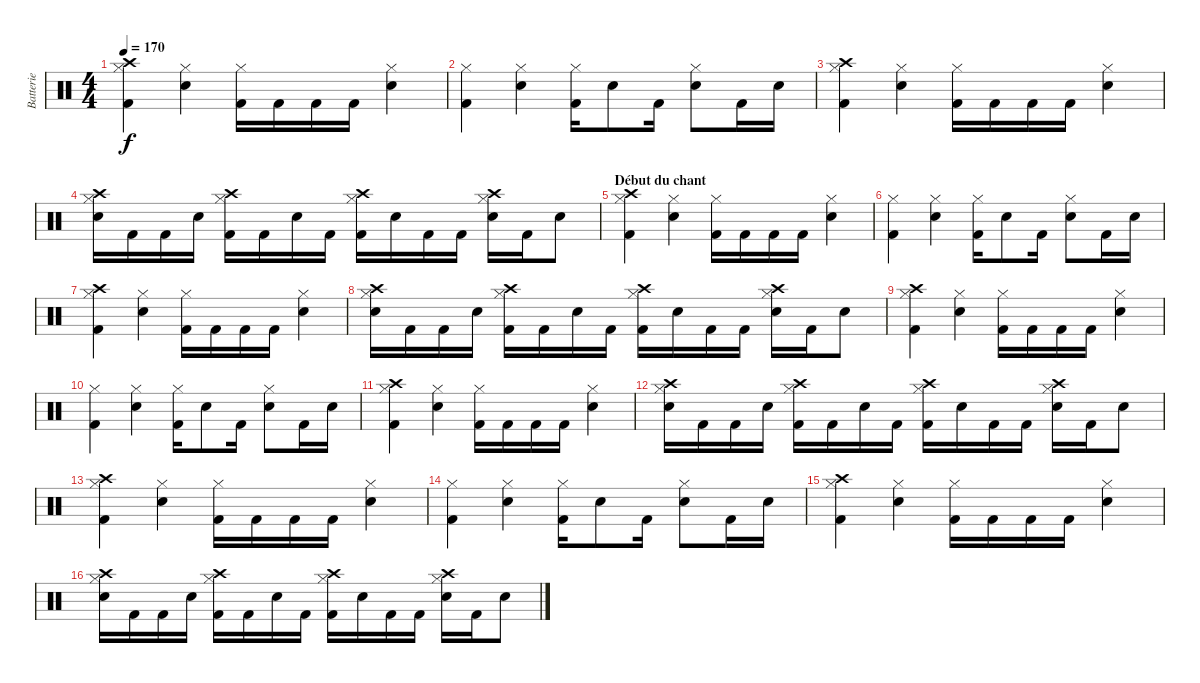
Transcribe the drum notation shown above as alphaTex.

\track ("Batterie" "Batterie") {instrument percussion}
\staff {score}
\articulation defaults
\ts (4 4)
\tempo 170
\clef neutral
\ks c
("Crash high (hit)" "Hi-Hat (closed)" "Kick (hit) 2").4{dy f} ("Hi-Hat (closed)" "Snare (hit) 2").4 ("Hi-Hat (closed)" "Kick (hit) 2").16 "Kick (hit) 2".16 "Kick (hit) 2".16 "Kick (hit) 2".16 ("Hi-Hat (closed)" "Snare (hit) 2").4 |
("Hi-Hat (closed)" "Kick (hit) 2").4 ("Hi-Hat (closed)" "Snare (hit) 2").4 ("Hi-Hat (closed)" "Kick (hit) 2").16 "Snare (hit) 2".8 "Kick (hit) 2".16 ("Hi-Hat (closed)" "Snare (hit) 2").8 "Kick (hit) 2".16 "Snare (hit) 2".16 |
("Crash high (hit)" "Hi-Hat (closed)" "Kick (hit) 2").4 ("Hi-Hat (closed)" "Snare (hit) 2").4 ("Hi-Hat (closed)" "Kick (hit) 2").16 "Kick (hit) 2".16 "Kick (hit) 2".16 "Kick (hit) 2".16 ("Hi-Hat (closed)" "Snare (hit) 2").4 |
("Crash high (hit)" "Hi-Hat (closed)" "Snare (hit) 2").16 "Kick (hit) 2".16 "Kick (hit) 2".16 "Snare (hit) 2".16 ("Crash high (hit)" "Hi-Hat (closed)" "Kick (hit) 2").16 "Kick (hit) 2".16 "Snare (hit) 2".16 "Kick (hit) 2".16 ("Crash high (hit)" "Hi-Hat (closed)" "Kick (hit) 2").16 "Snare (hit) 2".16 "Kick (hit) 2".16 "Kick (hit) 2".16 ("Crash high (hit)" "Hi-Hat (closed)" "Snare (hit) 2").16 "Kick (hit) 2".16 "Snare (hit) 2".8 |
\section ("" "Début du chant")
("Crash high (hit)" "Hi-Hat (closed)" "Kick (hit) 2").4 ("Hi-Hat (closed)" "Snare (hit) 2").4 ("Hi-Hat (closed)" "Kick (hit) 2").16 "Kick (hit) 2".16 "Kick (hit) 2".16 "Kick (hit) 2".16 ("Hi-Hat (closed)" "Snare (hit) 2").4 |
("Hi-Hat (closed)" "Kick (hit) 2").4 ("Hi-Hat (closed)" "Snare (hit) 2").4 ("Hi-Hat (closed)" "Kick (hit) 2").16 "Snare (hit) 2".8 "Kick (hit) 2".16 ("Hi-Hat (closed)" "Snare (hit) 2").8 "Kick (hit) 2".16 "Snare (hit) 2".16 |
("Crash high (hit)" "Hi-Hat (closed)" "Kick (hit) 2").4 ("Hi-Hat (closed)" "Snare (hit) 2").4 ("Hi-Hat (closed)" "Kick (hit) 2").16 "Kick (hit) 2".16 "Kick (hit) 2".16 "Kick (hit) 2".16 ("Hi-Hat (closed)" "Snare (hit) 2").4 |
("Crash high (hit)" "Hi-Hat (closed)" "Snare (hit) 2").16 "Kick (hit) 2".16 "Kick (hit) 2".16 "Snare (hit) 2".16 ("Crash high (hit)" "Hi-Hat (closed)" "Kick (hit) 2").16 "Kick (hit) 2".16 "Snare (hit) 2".16 "Kick (hit) 2".16 ("Crash high (hit)" "Hi-Hat (closed)" "Kick (hit) 2").16 "Snare (hit) 2".16 "Kick (hit) 2".16 "Kick (hit) 2".16 ("Crash high (hit)" "Hi-Hat (closed)" "Snare (hit) 2").16 "Kick (hit) 2".16 "Snare (hit) 2".8 |
("Crash high (hit)" "Hi-Hat (closed)" "Kick (hit) 2").4 ("Hi-Hat (closed)" "Snare (hit) 2").4 ("Hi-Hat (closed)" "Kick (hit) 2").16 "Kick (hit) 2".16 "Kick (hit) 2".16 "Kick (hit) 2".16 ("Hi-Hat (closed)" "Snare (hit) 2").4 |
("Hi-Hat (closed)" "Kick (hit) 2").4 ("Hi-Hat (closed)" "Snare (hit) 2").4 ("Hi-Hat (closed)" "Kick (hit) 2").16 "Snare (hit) 2".8 "Kick (hit) 2".16 ("Hi-Hat (closed)" "Snare (hit) 2").8 "Kick (hit) 2".16 "Snare (hit) 2".16 |
("Crash high (hit)" "Hi-Hat (closed)" "Kick (hit) 2").4 ("Hi-Hat (closed)" "Snare (hit) 2").4 ("Hi-Hat (closed)" "Kick (hit) 2").16 "Kick (hit) 2".16 "Kick (hit) 2".16 "Kick (hit) 2".16 ("Hi-Hat (closed)" "Snare (hit) 2").4 |
("Crash high (hit)" "Hi-Hat (closed)" "Snare (hit) 2").16 "Kick (hit) 2".16 "Kick (hit) 2".16 "Snare (hit) 2".16 ("Crash high (hit)" "Hi-Hat (closed)" "Kick (hit) 2").16 "Kick (hit) 2".16 "Snare (hit) 2".16 "Kick (hit) 2".16 ("Crash high (hit)" "Hi-Hat (closed)" "Kick (hit) 2").16 "Snare (hit) 2".16 "Kick (hit) 2".16 "Kick (hit) 2".16 ("Crash high (hit)" "Hi-Hat (closed)" "Snare (hit) 2").16 "Kick (hit) 2".16 "Snare (hit) 2".8 |
("Crash high (hit)" "Hi-Hat (closed)" "Kick (hit) 2").4 ("Hi-Hat (closed)" "Snare (hit) 2").4 ("Hi-Hat (closed)" "Kick (hit) 2").16 "Kick (hit) 2".16 "Kick (hit) 2".16 "Kick (hit) 2".16 ("Hi-Hat (closed)" "Snare (hit) 2").4 |
("Hi-Hat (closed)" "Kick (hit) 2").4 ("Hi-Hat (closed)" "Snare (hit) 2").4 ("Hi-Hat (closed)" "Kick (hit) 2").16 "Snare (hit) 2".8 "Kick (hit) 2".16 ("Hi-Hat (closed)" "Snare (hit) 2").8 "Kick (hit) 2".16 "Snare (hit) 2".16 |
("Crash high (hit)" "Hi-Hat (closed)" "Kick (hit) 2").4 ("Hi-Hat (closed)" "Snare (hit) 2").4 ("Hi-Hat (closed)" "Kick (hit) 2").16 "Kick (hit) 2".16 "Kick (hit) 2".16 "Kick (hit) 2".16 ("Hi-Hat (closed)" "Snare (hit) 2").4 |
("Crash high (hit)" "Hi-Hat (closed)" "Snare (hit) 2").16 "Kick (hit) 2".16 "Kick (hit) 2".16 "Snare (hit) 2".16 ("Crash high (hit)" "Hi-Hat (closed)" "Kick (hit) 2").16 "Kick (hit) 2".16 "Snare (hit) 2".16 "Kick (hit) 2".16 ("Crash high (hit)" "Hi-Hat (closed)" "Kick (hit) 2").16 "Snare (hit) 2".16 "Kick (hit) 2".16 "Kick (hit) 2".16 ("Crash high (hit)" "Hi-Hat (closed)" "Snare (hit) 2").16 "Kick (hit) 2".16 "Snare (hit) 2".8
